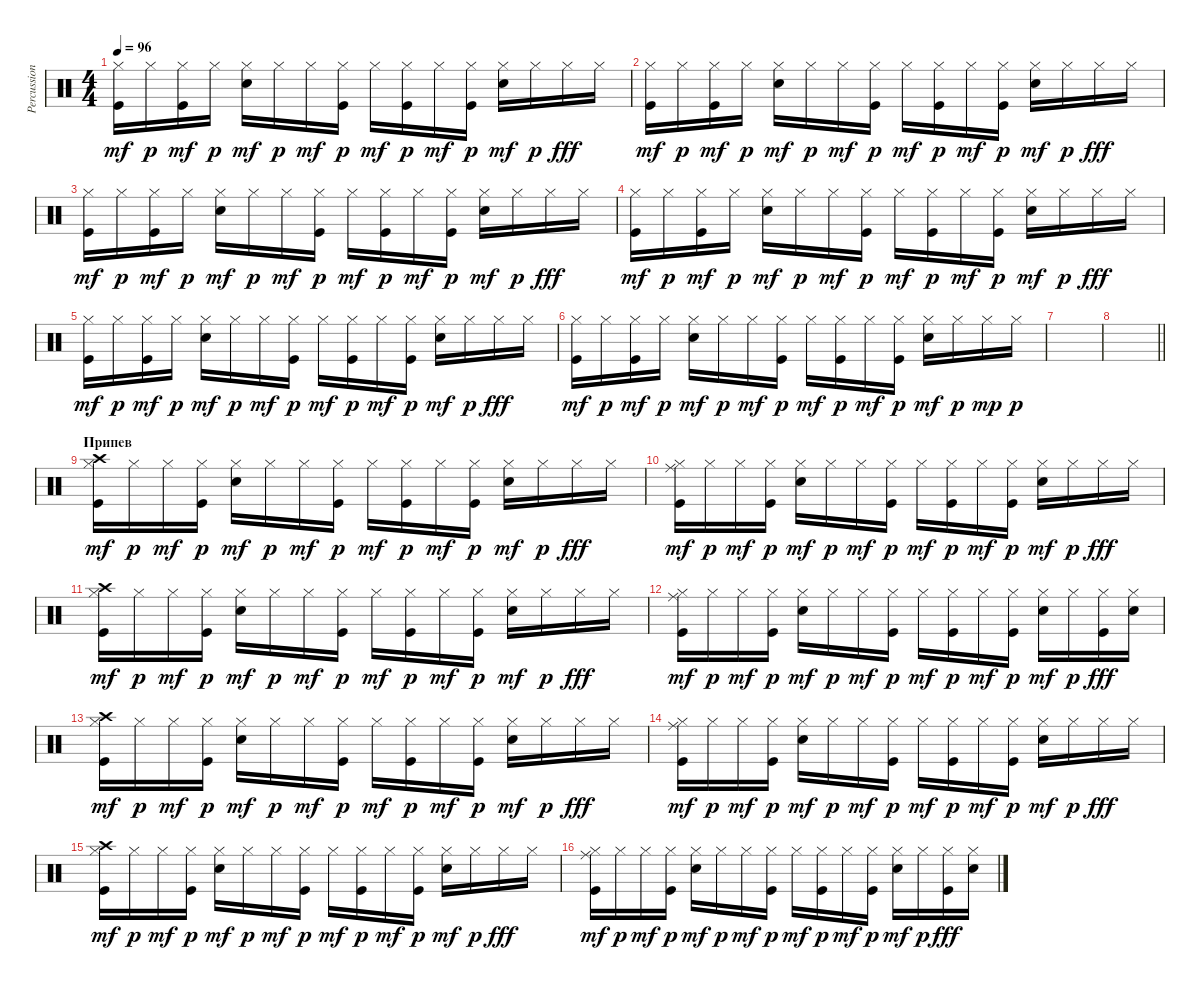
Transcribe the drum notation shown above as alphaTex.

\track ("Percussion" "Percussion") {instrument percussion}
\staff {score}
\articulation defaults
\ts (4 4)
\tempo 96
\clef neutral
\ks c
("Hi-Hat (closed)" "Kick (hit)").16{dy mf} "Hi-Hat (closed)".16{dy p} ("Hi-Hat (closed)" "Kick (hit)").16{dy mf} "Hi-Hat (closed)".16{dy p} ("Hi-Hat (closed)" "Snare (hit) 2").16{dy mf} "Hi-Hat (closed)".16{dy p} "Hi-Hat (closed)".16{dy mf} ("Hi-Hat (closed)" "Kick (hit)").16{dy p} "Hi-Hat (closed)".16{dy mf} ("Hi-Hat (closed)" "Kick (hit)").16{dy p} "Hi-Hat (closed)".16{dy mf} ("Hi-Hat (closed)" "Kick (hit)").16{dy p} ("Hi-Hat (closed)" "Snare (hit) 2").16{dy mf} "Hi-Hat (closed)".16{dy p} "Hi-Hat (closed)".16{dy fff} "Hi-Hat (closed)".16 |
("Hi-Hat (closed)" "Kick (hit)").16{dy mf} "Hi-Hat (closed)".16{dy p} ("Hi-Hat (closed)" "Kick (hit)").16{dy mf} "Hi-Hat (closed)".16{dy p} ("Hi-Hat (closed)" "Snare (hit) 2").16{dy mf} "Hi-Hat (closed)".16{dy p} "Hi-Hat (closed)".16{dy mf} ("Hi-Hat (closed)" "Kick (hit)").16{dy p} "Hi-Hat (closed)".16{dy mf} ("Hi-Hat (closed)" "Kick (hit)").16{dy p} "Hi-Hat (closed)".16{dy mf} ("Hi-Hat (closed)" "Kick (hit)").16{dy p} ("Hi-Hat (closed)" "Snare (hit) 2").16{dy mf} "Hi-Hat (closed)".16{dy p} "Hi-Hat (closed)".16{dy fff} "Hi-Hat (closed)".16 |
("Hi-Hat (closed)" "Kick (hit)").16{dy mf} "Hi-Hat (closed)".16{dy p} ("Hi-Hat (closed)" "Kick (hit)").16{dy mf} "Hi-Hat (closed)".16{dy p} ("Hi-Hat (closed)" "Snare (hit) 2").16{dy mf} "Hi-Hat (closed)".16{dy p} "Hi-Hat (closed)".16{dy mf} ("Hi-Hat (closed)" "Kick (hit)").16{dy p} "Hi-Hat (closed)".16{dy mf} ("Hi-Hat (closed)" "Kick (hit)").16{dy p} "Hi-Hat (closed)".16{dy mf} ("Hi-Hat (closed)" "Kick (hit)").16{dy p} ("Hi-Hat (closed)" "Snare (hit) 2").16{dy mf} "Hi-Hat (closed)".16{dy p} "Hi-Hat (closed)".16{dy fff} "Hi-Hat (closed)".16 |
("Hi-Hat (closed)" "Kick (hit)").16{dy mf} "Hi-Hat (closed)".16{dy p} ("Hi-Hat (closed)" "Kick (hit)").16{dy mf} "Hi-Hat (closed)".16{dy p} ("Hi-Hat (closed)" "Snare (hit) 2").16{dy mf} "Hi-Hat (closed)".16{dy p} "Hi-Hat (closed)".16{dy mf} ("Hi-Hat (closed)" "Kick (hit)").16{dy p} "Hi-Hat (closed)".16{dy mf} ("Hi-Hat (closed)" "Kick (hit)").16{dy p} "Hi-Hat (closed)".16{dy mf} ("Hi-Hat (closed)" "Kick (hit)").16{dy p} ("Hi-Hat (closed)" "Snare (hit) 2").16{dy mf} "Hi-Hat (closed)".16{dy p} "Hi-Hat (closed)".16{dy fff} "Hi-Hat (closed)".16 |
("Hi-Hat (closed)" "Kick (hit)").16{dy mf} "Hi-Hat (closed)".16{dy p} ("Hi-Hat (closed)" "Kick (hit)").16{dy mf} "Hi-Hat (closed)".16{dy p} ("Hi-Hat (closed)" "Snare (hit) 2").16{dy mf} "Hi-Hat (closed)".16{dy p} "Hi-Hat (closed)".16{dy mf} ("Hi-Hat (closed)" "Kick (hit)").16{dy p} "Hi-Hat (closed)".16{dy mf} ("Hi-Hat (closed)" "Kick (hit)").16{dy p} "Hi-Hat (closed)".16{dy mf} ("Hi-Hat (closed)" "Kick (hit)").16{dy p} ("Hi-Hat (closed)" "Snare (hit) 2").16{dy mf} "Hi-Hat (closed)".16{dy p} "Hi-Hat (closed)".16{dy fff} "Hi-Hat (closed)".16 |
("Hi-Hat (closed)" "Kick (hit)").16{dy mf} "Hi-Hat (closed)".16{dy p} ("Hi-Hat (closed)" "Kick (hit)").16{dy mf} "Hi-Hat (closed)".16{dy p} ("Hi-Hat (closed)" "Snare (hit) 2").16{dy mf} "Hi-Hat (closed)".16{dy p} "Hi-Hat (closed)".16{dy mf} ("Hi-Hat (closed)" "Kick (hit)").16{dy p} "Hi-Hat (closed)".16{dy mf} ("Hi-Hat (closed)" "Kick (hit)").16{dy p} "Hi-Hat (closed)".16{dy mf} ("Hi-Hat (closed)" "Kick (hit)").16{dy p} ("Hi-Hat (closed)" "Snare (hit) 2").16{dy mf} "Hi-Hat (closed)".16{dy p} "Hi-Hat (closed)".16{dy mp} "Hi-Hat (closed)".16{dy p} |
|
\barLineRight lightlight
|
\section ("" "Припев")
("Hi-Hat (closed)" "Crash high (hit)" "Kick (hit)").16{dy mf} "Hi-Hat (closed)".16{dy p} "Hi-Hat (closed)".16{dy mf} ("Hi-Hat (closed)" "Kick (hit)").16{dy p} ("Hi-Hat (closed)" "Snare (hit) 2").16{dy mf} "Hi-Hat (closed)".16{dy p} "Hi-Hat (closed)".16{dy mf} ("Hi-Hat (closed)" "Kick (hit)").16{dy p} "Hi-Hat (closed)".16{dy mf} ("Hi-Hat (closed)" "Kick (hit)").16{dy p} "Hi-Hat (closed)".16{dy mf} ("Hi-Hat (closed)" "Kick (hit)").16{dy p} ("Hi-Hat (closed)" "Snare (hit) 2").16{dy mf} "Hi-Hat (closed)".16{dy p} "Hi-Hat (closed)".16{dy fff} "Hi-Hat (closed)".16 |
("Hi-Hat (closed)" "Ride (middle)" "Kick (hit)").16{dy mf} "Hi-Hat (closed)".16{dy p} "Hi-Hat (closed)".16{dy mf} ("Hi-Hat (closed)" "Kick (hit)").16{dy p} ("Hi-Hat (closed)" "Snare (hit) 2").16{dy mf} "Hi-Hat (closed)".16{dy p} "Hi-Hat (closed)".16{dy mf} ("Hi-Hat (closed)" "Kick (hit)").16{dy p} "Hi-Hat (closed)".16{dy mf} ("Hi-Hat (closed)" "Kick (hit)").16{dy p} "Hi-Hat (closed)".16{dy mf} ("Hi-Hat (closed)" "Kick (hit)").16{dy p} ("Hi-Hat (closed)" "Snare (hit) 2").16{dy mf} "Hi-Hat (closed)".16{dy p} "Hi-Hat (closed)".16{dy fff} "Hi-Hat (closed)".16 |
("Hi-Hat (closed)" "Crash high (hit)" "Kick (hit)").16{dy mf} "Hi-Hat (closed)".16{dy p} "Hi-Hat (closed)".16{dy mf} ("Hi-Hat (closed)" "Kick (hit)").16{dy p} ("Hi-Hat (closed)" "Snare (hit) 2").16{dy mf} "Hi-Hat (closed)".16{dy p} "Hi-Hat (closed)".16{dy mf} ("Hi-Hat (closed)" "Kick (hit)").16{dy p} "Hi-Hat (closed)".16{dy mf} ("Hi-Hat (closed)" "Kick (hit)").16{dy p} "Hi-Hat (closed)".16{dy mf} ("Hi-Hat (closed)" "Kick (hit)").16{dy p} ("Hi-Hat (closed)" "Snare (hit) 2").16{dy mf} "Hi-Hat (closed)".16{dy p} "Hi-Hat (closed)".16{dy fff} "Hi-Hat (closed)".16 |
("Hi-Hat (closed)" "Ride (middle)" "Kick (hit)").16{dy mf} "Hi-Hat (closed)".16{dy p} "Hi-Hat (closed)".16{dy mf} ("Hi-Hat (closed)" "Kick (hit)").16{dy p} ("Hi-Hat (closed)" "Snare (hit) 2").16{dy mf} "Hi-Hat (closed)".16{dy p} "Hi-Hat (closed)".16{dy mf} ("Hi-Hat (closed)" "Kick (hit)").16{dy p} "Hi-Hat (closed)".16{dy mf} ("Hi-Hat (closed)" "Kick (hit)").16{dy p} "Hi-Hat (closed)".16{dy mf} ("Hi-Hat (closed)" "Kick (hit)").16{dy p} ("Hi-Hat (closed)" "Snare (hit) 2").16{dy mf} "Hi-Hat (closed)".16{dy p} ("Hi-Hat (closed)" "Kick (hit)").16{dy fff} ("Hi-Hat (closed)" "Snare (hit) 2").16 |
("Hi-Hat (closed)" "Crash high (hit)" "Kick (hit)").16{dy mf} "Hi-Hat (closed)".16{dy p} "Hi-Hat (closed)".16{dy mf} ("Hi-Hat (closed)" "Kick (hit)").16{dy p} ("Hi-Hat (closed)" "Snare (hit) 2").16{dy mf} "Hi-Hat (closed)".16{dy p} "Hi-Hat (closed)".16{dy mf} ("Hi-Hat (closed)" "Kick (hit)").16{dy p} "Hi-Hat (closed)".16{dy mf} ("Hi-Hat (closed)" "Kick (hit)").16{dy p} "Hi-Hat (closed)".16{dy mf} ("Hi-Hat (closed)" "Kick (hit)").16{dy p} ("Hi-Hat (closed)" "Snare (hit) 2").16{dy mf} "Hi-Hat (closed)".16{dy p} "Hi-Hat (closed)".16{dy fff} "Hi-Hat (closed)".16 |
("Hi-Hat (closed)" "Ride (middle)" "Kick (hit)").16{dy mf} "Hi-Hat (closed)".16{dy p} "Hi-Hat (closed)".16{dy mf} ("Hi-Hat (closed)" "Kick (hit)").16{dy p} ("Hi-Hat (closed)" "Snare (hit) 2").16{dy mf} "Hi-Hat (closed)".16{dy p} "Hi-Hat (closed)".16{dy mf} ("Hi-Hat (closed)" "Kick (hit)").16{dy p} "Hi-Hat (closed)".16{dy mf} ("Hi-Hat (closed)" "Kick (hit)").16{dy p} "Hi-Hat (closed)".16{dy mf} ("Hi-Hat (closed)" "Kick (hit)").16{dy p} ("Hi-Hat (closed)" "Snare (hit) 2").16{dy mf} "Hi-Hat (closed)".16{dy p} "Hi-Hat (closed)".16{dy fff} "Hi-Hat (closed)".16 |
("Hi-Hat (closed)" "Crash high (hit)" "Kick (hit)").16{dy mf} "Hi-Hat (closed)".16{dy p} "Hi-Hat (closed)".16{dy mf} ("Hi-Hat (closed)" "Kick (hit)").16{dy p} ("Hi-Hat (closed)" "Snare (hit) 2").16{dy mf} "Hi-Hat (closed)".16{dy p} "Hi-Hat (closed)".16{dy mf} ("Hi-Hat (closed)" "Kick (hit)").16{dy p} "Hi-Hat (closed)".16{dy mf} ("Hi-Hat (closed)" "Kick (hit)").16{dy p} "Hi-Hat (closed)".16{dy mf} ("Hi-Hat (closed)" "Kick (hit)").16{dy p} ("Hi-Hat (closed)" "Snare (hit) 2").16{dy mf} "Hi-Hat (closed)".16{dy p} "Hi-Hat (closed)".16{dy fff} "Hi-Hat (closed)".16 |
("Hi-Hat (closed)" "Ride (middle)" "Kick (hit)").16{dy mf} "Hi-Hat (closed)".16{dy p} "Hi-Hat (closed)".16{dy mf} ("Hi-Hat (closed)" "Kick (hit)").16{dy p} ("Hi-Hat (closed)" "Snare (hit) 2").16{dy mf} "Hi-Hat (closed)".16{dy p} "Hi-Hat (closed)".16{dy mf} ("Hi-Hat (closed)" "Kick (hit)").16{dy p} "Hi-Hat (closed)".16{dy mf} ("Hi-Hat (closed)" "Kick (hit)").16{dy p} "Hi-Hat (closed)".16{dy mf} ("Hi-Hat (closed)" "Kick (hit)").16{dy p} ("Hi-Hat (closed)" "Snare (hit) 2").16{dy mf} "Hi-Hat (closed)".16{dy p} ("Hi-Hat (closed)" "Kick (hit)").16{dy fff} ("Hi-Hat (closed)" "Snare (hit) 2").16
